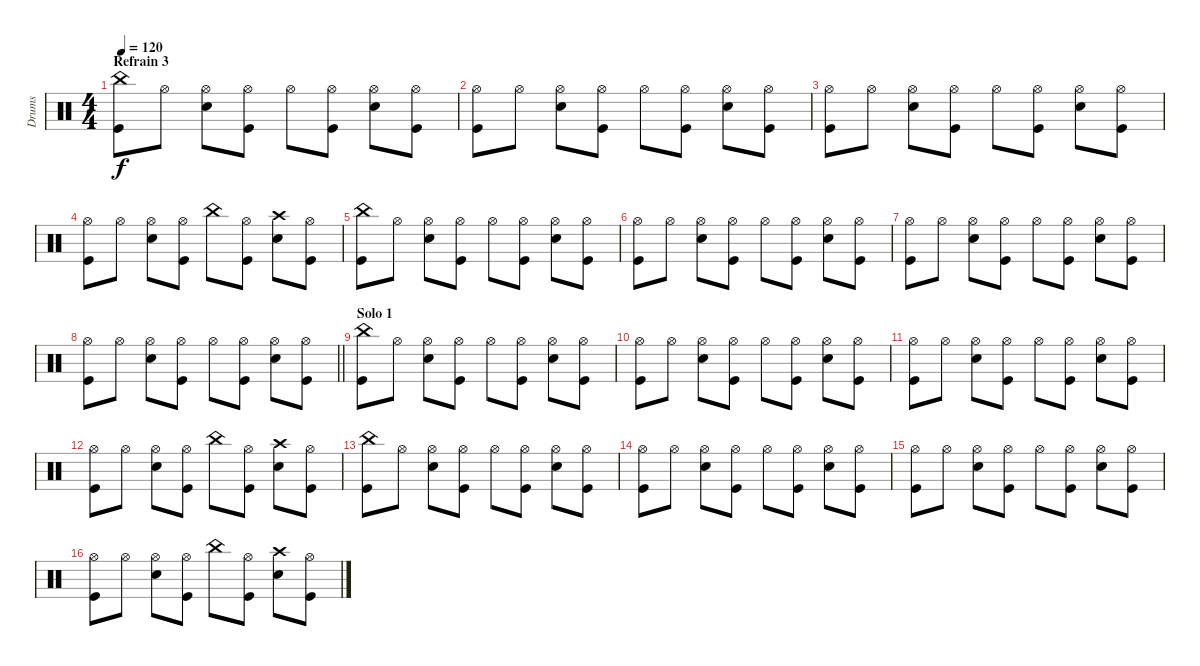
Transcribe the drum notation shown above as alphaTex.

\track ("Drums" "Drums") {instrument percussion}
\staff {score}
\articulation defaults
\ts (4 4)
\section ("" "Refrain 3")
\tempo 120
\clef neutral
\ks c
("China (hit)" "Kick (hit)").8{dy f} "Hi-Hat (open)".8 ("Hi-Hat (open)" "Electric Snare (hit)").8 ("Hi-Hat (open)" "Kick (hit)").8 "Hi-Hat (open)".8 ("Hi-Hat (open)" "Kick (hit)").8 ("Hi-Hat (open)" "Electric Snare (hit)").8 ("Hi-Hat (open)" "Kick (hit)").8 |
("Hi-Hat (open)" "Kick (hit)").8 "Hi-Hat (open)".8 ("Hi-Hat (open)" "Electric Snare (hit)").8 ("Hi-Hat (open)" "Kick (hit)").8 "Hi-Hat (open)".8 ("Hi-Hat (open)" "Kick (hit)").8 ("Hi-Hat (open)" "Electric Snare (hit)").8 ("Hi-Hat (open)" "Kick (hit)").8 |
("Hi-Hat (open)" "Kick (hit)").8 "Hi-Hat (open)".8 ("Hi-Hat (open)" "Electric Snare (hit)").8 ("Hi-Hat (open)" "Kick (hit)").8 "Hi-Hat (open)".8 ("Hi-Hat (open)" "Kick (hit)").8 ("Hi-Hat (open)" "Electric Snare (hit)").8 ("Hi-Hat (open)" "Kick (hit)").8 |
("Hi-Hat (open)" "Kick (hit)").8 "Hi-Hat (open)".8 ("Hi-Hat (open)" "Electric Snare (hit)").8 ("Hi-Hat (open)" "Kick (hit)").8 "China (hit)".8 ("Hi-Hat (open)" "Kick (hit)").8 ("Crash high (hit)" "Electric Snare (hit)").8 ("Hi-Hat (open)" "Kick (hit)").8 |
("China (hit)" "Kick (hit)").8 "Hi-Hat (open)".8 ("Hi-Hat (open)" "Electric Snare (hit)").8 ("Hi-Hat (open)" "Kick (hit)").8 "Hi-Hat (open)".8 ("Hi-Hat (open)" "Kick (hit)").8 ("Hi-Hat (open)" "Electric Snare (hit)").8 ("Hi-Hat (open)" "Kick (hit)").8 |
("Hi-Hat (open)" "Kick (hit)").8 "Hi-Hat (open)".8 ("Hi-Hat (open)" "Electric Snare (hit)").8 ("Hi-Hat (open)" "Kick (hit)").8 "Hi-Hat (open)".8 ("Hi-Hat (open)" "Kick (hit)").8 ("Hi-Hat (open)" "Electric Snare (hit)").8 ("Hi-Hat (open)" "Kick (hit)").8 |
("Hi-Hat (open)" "Kick (hit)").8 "Hi-Hat (open)".8 ("Hi-Hat (open)" "Electric Snare (hit)").8 ("Hi-Hat (open)" "Kick (hit)").8 "Hi-Hat (open)".8 ("Hi-Hat (open)" "Kick (hit)").8 ("Hi-Hat (open)" "Electric Snare (hit)").8 ("Hi-Hat (open)" "Kick (hit)").8 |
\barLineRight lightlight
("Hi-Hat (open)" "Kick (hit)").8 "Hi-Hat (open)".8 ("Hi-Hat (open)" "Electric Snare (hit)").8 ("Hi-Hat (open)" "Kick (hit)").8 "Hi-Hat (open)".8 ("Hi-Hat (open)" "Kick (hit)").8 ("Hi-Hat (open)" "Electric Snare (hit)").8 ("Hi-Hat (open)" "Kick (hit)").8 |
\section ("" "Solo 1")
("China (hit)" "Kick (hit)").8 "Hi-Hat (open)".8 ("Hi-Hat (open)" "Electric Snare (hit)").8 ("Hi-Hat (open)" "Kick (hit)").8 "Hi-Hat (open)".8 ("Hi-Hat (open)" "Kick (hit)").8 ("Hi-Hat (open)" "Electric Snare (hit)").8 ("Hi-Hat (open)" "Kick (hit)").8 |
("Hi-Hat (open)" "Kick (hit)").8 "Hi-Hat (open)".8 ("Hi-Hat (open)" "Electric Snare (hit)").8 ("Hi-Hat (open)" "Kick (hit)").8 "Hi-Hat (open)".8 ("Hi-Hat (open)" "Kick (hit)").8 ("Hi-Hat (open)" "Electric Snare (hit)").8 ("Hi-Hat (open)" "Kick (hit)").8 |
("Hi-Hat (open)" "Kick (hit)").8 "Hi-Hat (open)".8 ("Hi-Hat (open)" "Electric Snare (hit)").8 ("Hi-Hat (open)" "Kick (hit)").8 "Hi-Hat (open)".8 ("Hi-Hat (open)" "Kick (hit)").8 ("Hi-Hat (open)" "Electric Snare (hit)").8 ("Hi-Hat (open)" "Kick (hit)").8 |
("Hi-Hat (open)" "Kick (hit)").8 "Hi-Hat (open)".8 ("Hi-Hat (open)" "Electric Snare (hit)").8 ("Hi-Hat (open)" "Kick (hit)").8 "China (hit)".8 ("Hi-Hat (open)" "Kick (hit)").8 ("Crash high (hit)" "Electric Snare (hit)").8 ("Hi-Hat (open)" "Kick (hit)").8 |
("China (hit)" "Kick (hit)").8 "Hi-Hat (open)".8 ("Hi-Hat (open)" "Electric Snare (hit)").8 ("Hi-Hat (open)" "Kick (hit)").8 "Hi-Hat (open)".8 ("Hi-Hat (open)" "Kick (hit)").8 ("Hi-Hat (open)" "Electric Snare (hit)").8 ("Hi-Hat (open)" "Kick (hit)").8 |
("Hi-Hat (open)" "Kick (hit)").8 "Hi-Hat (open)".8 ("Hi-Hat (open)" "Electric Snare (hit)").8 ("Hi-Hat (open)" "Kick (hit)").8 "Hi-Hat (open)".8 ("Hi-Hat (open)" "Kick (hit)").8 ("Hi-Hat (open)" "Electric Snare (hit)").8 ("Hi-Hat (open)" "Kick (hit)").8 |
("Hi-Hat (open)" "Kick (hit)").8 "Hi-Hat (open)".8 ("Hi-Hat (open)" "Electric Snare (hit)").8 ("Hi-Hat (open)" "Kick (hit)").8 "Hi-Hat (open)".8 ("Hi-Hat (open)" "Kick (hit)").8 ("Hi-Hat (open)" "Electric Snare (hit)").8 ("Hi-Hat (open)" "Kick (hit)").8 |
("Hi-Hat (open)" "Kick (hit)").8 "Hi-Hat (open)".8 ("Hi-Hat (open)" "Electric Snare (hit)").8 ("Hi-Hat (open)" "Kick (hit)").8 "China (hit)".8 ("Hi-Hat (open)" "Kick (hit)").8 ("Crash high (hit)" "Electric Snare (hit)").8 ("Hi-Hat (open)" "Kick (hit)").8
